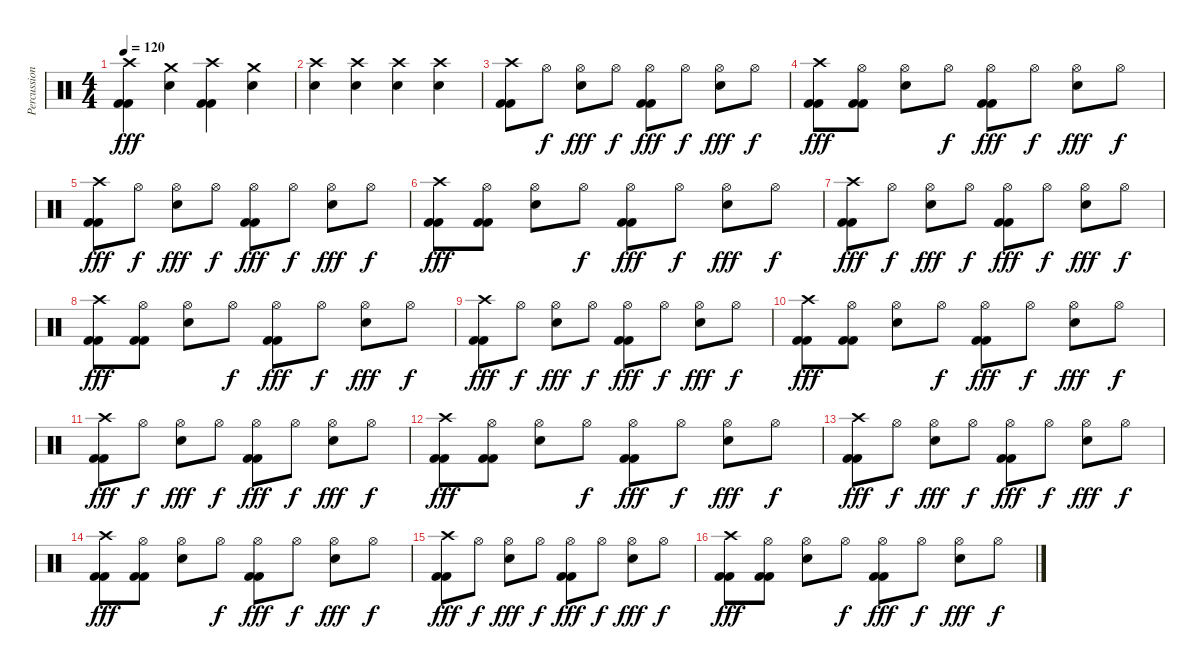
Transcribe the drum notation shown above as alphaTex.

\track ("Percussion" "Percussion") {instrument percussion}
\staff {score}
\articulation defaults
\ts (4 4)
\tempo 120
\clef neutral
\ks c
("Crash high (hit)" "Kick (hit) 2" "Kick (hit) 2").4{dy fff} ("Crash medium (hit)" "Snare (hit) 2").4 ("Crash high (hit)" "Kick (hit) 2" "Kick (hit) 2").4 ("Crash medium (hit)" "Snare (hit) 2").4 |
("Crash high (hit)" "Snare (hit) 2").4 ("Crash high (hit)" "Snare (hit) 2").4 ("Crash high (hit)" "Snare (hit) 2").4 ("Crash high (hit)" "Snare (hit) 2").4 |
("Crash high (hit)" "Kick (hit) 2" "Kick (hit) 2").8 "Hi-Hat (open)".8{dy f} ("Hi-Hat (open)" "Snare (hit) 2").8{dy fff} "Hi-Hat (open)".8{dy f} ("Hi-Hat (open)" "Kick (hit) 2" "Kick (hit) 2").8{dy fff} "Hi-Hat (open)".8{dy f} ("Hi-Hat (open)" "Snare (hit) 2").8{dy fff} "Hi-Hat (open)".8{dy f} |
("Crash high (hit)" "Kick (hit) 2" "Kick (hit) 2").8{dy fff} ("Hi-Hat (open)" "Kick (hit) 2" "Kick (hit) 2").8 ("Hi-Hat (open)" "Snare (hit) 2").8 "Hi-Hat (open)".8{dy f} ("Hi-Hat (open)" "Kick (hit) 2" "Kick (hit) 2").8{dy fff} "Hi-Hat (open)".8{dy f} ("Hi-Hat (open)" "Snare (hit) 2").8{dy fff} "Hi-Hat (open)".8{dy f} |
("Crash high (hit)" "Kick (hit) 2" "Kick (hit) 2").8{dy fff} "Hi-Hat (open)".8{dy f} ("Hi-Hat (open)" "Snare (hit) 2").8{dy fff} "Hi-Hat (open)".8{dy f} ("Hi-Hat (open)" "Kick (hit) 2" "Kick (hit) 2").8{dy fff} "Hi-Hat (open)".8{dy f} ("Hi-Hat (open)" "Snare (hit) 2").8{dy fff} "Hi-Hat (open)".8{dy f} |
("Crash high (hit)" "Kick (hit) 2" "Kick (hit) 2").8{dy fff} ("Hi-Hat (open)" "Kick (hit) 2" "Kick (hit) 2").8 ("Hi-Hat (open)" "Snare (hit) 2").8 "Hi-Hat (open)".8{dy f} ("Hi-Hat (open)" "Kick (hit) 2" "Kick (hit) 2").8{dy fff} "Hi-Hat (open)".8{dy f} ("Hi-Hat (open)" "Snare (hit) 2").8{dy fff} "Hi-Hat (open)".8{dy f} |
("Crash high (hit)" "Kick (hit) 2" "Kick (hit) 2").8{dy fff} "Hi-Hat (open)".8{dy f} ("Hi-Hat (open)" "Snare (hit) 2").8{dy fff} "Hi-Hat (open)".8{dy f} ("Hi-Hat (open)" "Kick (hit) 2" "Kick (hit) 2").8{dy fff} "Hi-Hat (open)".8{dy f} ("Hi-Hat (open)" "Snare (hit) 2").8{dy fff} "Hi-Hat (open)".8{dy f} |
("Crash high (hit)" "Kick (hit) 2" "Kick (hit) 2").8{dy fff} ("Hi-Hat (open)" "Kick (hit) 2" "Kick (hit) 2").8 ("Hi-Hat (open)" "Snare (hit) 2").8 "Hi-Hat (open)".8{dy f} ("Hi-Hat (open)" "Kick (hit) 2" "Kick (hit) 2").8{dy fff} "Hi-Hat (open)".8{dy f} ("Hi-Hat (open)" "Snare (hit) 2").8{dy fff} "Hi-Hat (open)".8{dy f} |
("Crash high (hit)" "Kick (hit) 2" "Kick (hit) 2").8{dy fff} "Hi-Hat (open)".8{dy f} ("Hi-Hat (open)" "Snare (hit) 2").8{dy fff} "Hi-Hat (open)".8{dy f} ("Hi-Hat (open)" "Kick (hit) 2" "Kick (hit) 2").8{dy fff} "Hi-Hat (open)".8{dy f} ("Hi-Hat (open)" "Snare (hit) 2").8{dy fff} "Hi-Hat (open)".8{dy f} |
("Crash high (hit)" "Kick (hit) 2" "Kick (hit) 2").8{dy fff} ("Hi-Hat (open)" "Kick (hit) 2" "Kick (hit) 2").8 ("Hi-Hat (open)" "Snare (hit) 2").8 "Hi-Hat (open)".8{dy f} ("Hi-Hat (open)" "Kick (hit) 2" "Kick (hit) 2").8{dy fff} "Hi-Hat (open)".8{dy f} ("Hi-Hat (open)" "Snare (hit) 2").8{dy fff} "Hi-Hat (open)".8{dy f} |
("Crash high (hit)" "Kick (hit) 2" "Kick (hit) 2").8{dy fff} "Hi-Hat (open)".8{dy f} ("Hi-Hat (open)" "Snare (hit) 2").8{dy fff} "Hi-Hat (open)".8{dy f} ("Hi-Hat (open)" "Kick (hit) 2" "Kick (hit) 2").8{dy fff} "Hi-Hat (open)".8{dy f} ("Hi-Hat (open)" "Snare (hit) 2").8{dy fff} "Hi-Hat (open)".8{dy f} |
("Crash high (hit)" "Kick (hit) 2" "Kick (hit) 2").8{dy fff} ("Hi-Hat (open)" "Kick (hit) 2" "Kick (hit) 2").8 ("Hi-Hat (open)" "Snare (hit) 2").8 "Hi-Hat (open)".8{dy f} ("Hi-Hat (open)" "Kick (hit) 2" "Kick (hit) 2").8{dy fff} "Hi-Hat (open)".8{dy f} ("Hi-Hat (open)" "Snare (hit) 2").8{dy fff} "Hi-Hat (open)".8{dy f} |
("Crash high (hit)" "Kick (hit) 2" "Kick (hit) 2").8{dy fff} "Hi-Hat (open)".8{dy f} ("Hi-Hat (open)" "Snare (hit) 2").8{dy fff} "Hi-Hat (open)".8{dy f} ("Hi-Hat (open)" "Kick (hit) 2" "Kick (hit) 2").8{dy fff} "Hi-Hat (open)".8{dy f} ("Hi-Hat (open)" "Snare (hit) 2").8{dy fff} "Hi-Hat (open)".8{dy f} |
("Crash high (hit)" "Kick (hit) 2" "Kick (hit) 2").8{dy fff} ("Hi-Hat (open)" "Kick (hit) 2" "Kick (hit) 2").8 ("Hi-Hat (open)" "Snare (hit) 2").8 "Hi-Hat (open)".8{dy f} ("Hi-Hat (open)" "Kick (hit) 2" "Kick (hit) 2").8{dy fff} "Hi-Hat (open)".8{dy f} ("Hi-Hat (open)" "Snare (hit) 2").8{dy fff} "Hi-Hat (open)".8{dy f} |
("Crash high (hit)" "Kick (hit) 2" "Kick (hit) 2").8{dy fff} "Hi-Hat (open)".8{dy f} ("Hi-Hat (open)" "Snare (hit) 2").8{dy fff} "Hi-Hat (open)".8{dy f} ("Hi-Hat (open)" "Kick (hit) 2" "Kick (hit) 2").8{dy fff} "Hi-Hat (open)".8{dy f} ("Hi-Hat (open)" "Snare (hit) 2").8{dy fff} "Hi-Hat (open)".8{dy f} |
("Crash high (hit)" "Kick (hit) 2" "Kick (hit) 2").8{dy fff} ("Hi-Hat (open)" "Kick (hit) 2" "Kick (hit) 2").8 ("Hi-Hat (open)" "Snare (hit) 2").8 "Hi-Hat (open)".8{dy f} ("Hi-Hat (open)" "Kick (hit) 2" "Kick (hit) 2").8{dy fff} "Hi-Hat (open)".8{dy f} ("Hi-Hat (open)" "Snare (hit) 2").8{dy fff} "Hi-Hat (open)".8{dy f}
